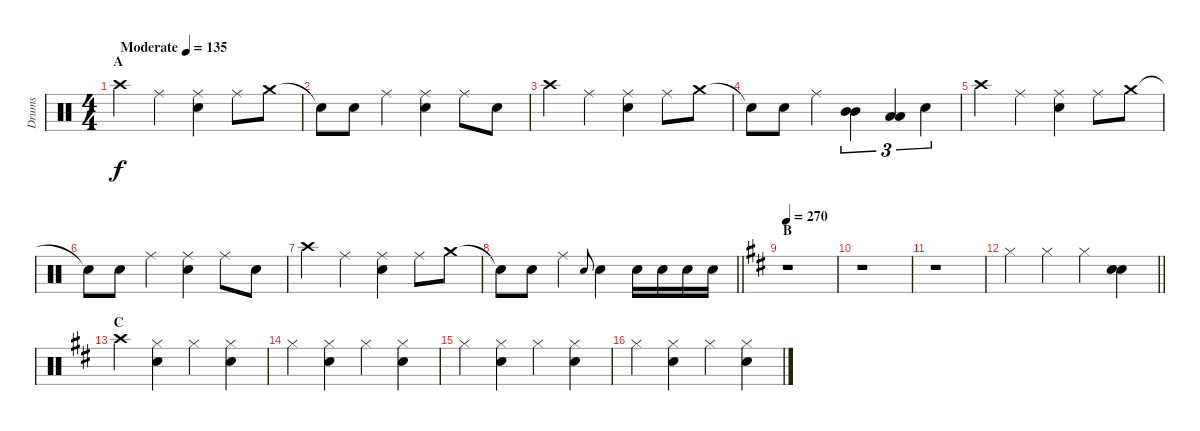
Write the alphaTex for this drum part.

\track ("Drums" "Drums") {instrument percussion}
\staff {score}
\articulation defaults
\ts (4 4)
\section ("" "A")
\tempo (135 "Moderate")
\clef neutral
\ks c "Crash high (hit)".4{dy f} "Ride (middle)".4
("Ride (middle)" "Snare (hit) 2").4 "Ride (middle)".8 "Crash medium (hit)".8 |
"Snare (hit)"{t}.8 "Snare (hit) 2".8 "Ride (middle)".4 ("Ride (middle)" "Snare (hit) 2").4 "Ride (middle)".8 "Snare (hit) 2".8 |
"Crash high (hit)".4 "Ride (middle)".4 ("Ride (middle)" "Snare (hit) 2").4 "Ride (middle)".8 "Crash medium (hit)".8 |
"Snare (hit)"{t}.8 "Snare (hit) 2".8 "Ride (middle)".4 ("Mid Tom (hit)" "Mid Tom (hit)").4{tu (3 2)} ("Low Tom (hit)" "Low Tom (hit)").4{tu (3 2)} "Snare (hit) 2".4{tu (3 2)} |
"Crash high (hit)".4 "Ride (middle)".4 ("Ride (middle)" "Snare (hit) 2").4 "Ride (middle)".8 "Crash medium (hit)".8 |
"Snare (hit)"{t}.8 "Snare (hit) 2".8 "Ride (middle)".4 ("Ride (middle)" "Snare (hit) 2").4 "Ride (middle)".8 "Snare (hit) 2".8 |
"Crash high (hit)".4 "Ride (middle)".4 ("Ride (middle)" "Snare (hit) 2").4 "Ride (middle)".8 "Crash medium (hit)".8 |
\barLineRight lightlight "Snare (hit)"{t}.8 "Snare (hit) 2".8 "Ride (middle)".4 "Snare (hit) 2".8{gr onbeat} "Snare (hit) 2".4 "Snare (hit) 2".16 "Snare (hit) 2".16 "Snare (hit) 2".16 "Snare (hit) 2".16
|
\section ("" "B")
\tempo 270
\ks d
r.1 |
r.1 |
r.1 |
\barLineRight lightlight "Hi-Hat (closed)".4 "Hi-Hat (closed)".4 "Hi-Hat (closed)".4
("Snare (hit) 2" "Snare (hit) 2").4 |
\section ("" "C")
"Crash high (hit)".4 ("Hi-Hat (closed)" "Snare (hit) 2").4 "Hi-Hat (closed)".4 ("Hi-Hat (closed)" "Snare (hit) 2").4 |
"Hi-Hat (closed)".4 ("Hi-Hat (closed)" "Snare (hit) 2").4 "Hi-Hat (closed)".4 ("Hi-Hat (closed)" "Snare (hit) 2").4 |
"Hi-Hat (closed)".4 ("Hi-Hat (closed)" "Snare (hit) 2").4 "Hi-Hat (closed)".4 ("Hi-Hat (closed)" "Snare (hit) 2").4 |
"Hi-Hat (closed)".4 ("Hi-Hat (closed)" "Snare (hit) 2").4 "Hi-Hat (closed)".4 ("Hi-Hat (closed)" "Snare (hit) 2").4
